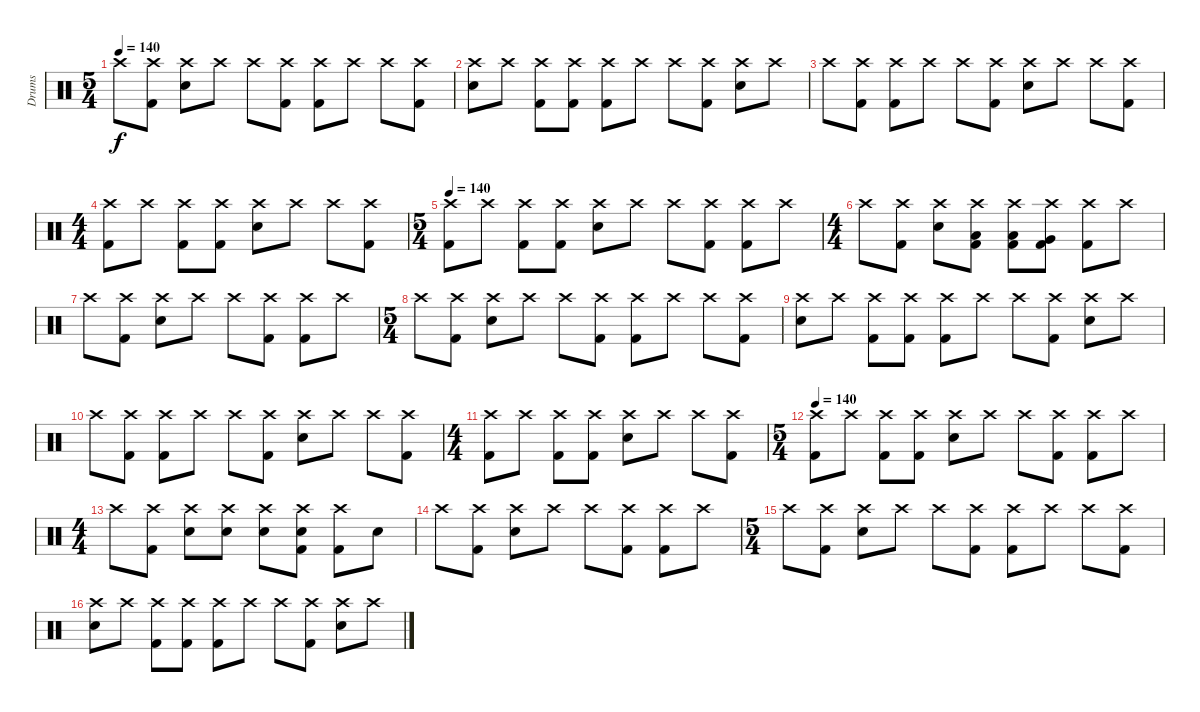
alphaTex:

\track ("Drums" "Drums") {instrument percussion}
\staff {score}
\articulation defaults
\ts (5 4)
\tempo 140
\clef neutral
\ks c "Crash high (hit)".8{dy f}
("Crash high (hit)"{x} "Kick (hit) 2").8 ("Crash high (hit)" "Electric Snare (hit)").8 "Crash high (hit)"{x}.8 "Crash high (hit)".8 ("Crash high (hit)"{x} "Kick (hit) 2").8 ("Crash high (hit)" "Kick (hit) 2").8 "Crash high (hit)"{x}.8 "Crash high (hit)".8 ("Crash high (hit)"{x} "Kick (hit) 2").8 |
("Crash high (hit)" "Electric Snare (hit)").8 "Crash high (hit)"{x}.8 ("Crash high (hit)" "Kick (hit) 2"{x}).8 ("Crash high (hit)"{x} "Kick (hit) 2").8 ("Crash high (hit)" "Kick (hit) 2").8 "Crash high (hit)"{x}.8 "Crash high (hit)".8 ("Crash high (hit)"{x} "Kick (hit) 2").8 ("Crash high (hit)" "Electric Snare (hit)").8 "Crash high (hit)"{x}.8 |
"Crash high (hit)".8 ("Crash high (hit)"{x} "Kick (hit) 2").8 ("Crash high (hit)" "Kick (hit) 2").8 "Crash high (hit)"{x}.8 "Crash high (hit)".8 ("Crash high (hit)"{x} "Kick (hit) 2").8 ("Crash high (hit)" "Electric Snare (hit)").8 "Crash high (hit)"{x}.8 "Crash high (hit)".8 ("Crash high (hit)"{x} "Kick (hit) 2").8 |
\ts (4 4)
("Crash high (hit)" "Kick (hit) 2").8 "Crash high (hit)"{x}.8 ("Crash high (hit)" "Kick (hit) 2"{x}).8 ("Crash high (hit)"{x} "Kick (hit) 2").8 ("Crash high (hit)" "Electric Snare (hit)").8 "Crash high (hit)"{x}.8 "Crash high (hit)".8 ("Crash high (hit)"{x} "Kick (hit) 2").8 |
\ts (5 4)
\tempo 140
("Crash high (hit)" "Kick (hit) 2").8 "Crash high (hit)"{x}.8 ("Crash high (hit)" "Kick (hit) 2"{x}).8 ("Crash high (hit)"{x} "Kick (hit) 2").8 ("Crash high (hit)" "Electric Snare (hit)").8 "Crash high (hit)"{x}.8 "Crash high (hit)".8 ("Crash high (hit)"{x} "Kick (hit) 2").8 ("Crash high (hit)" "Kick (hit) 2").8 "Crash high (hit)"{x}.8 |
\ts (4 4)
"Crash high (hit)".8 ("Crash high (hit)"{x} "Kick (hit) 2").8 ("Crash high (hit)" "Electric Snare (hit)").8 ("Crash high (hit)"{x} "Low Tom (hit)" "Kick (hit) 2").8 ("Crash high (hit)" "Low Tom (hit)" "Kick (hit) 2").8 ("Crash high (hit)"{x} "Very Low Tom (hit)" "Kick (hit) 2").8 ("Crash high (hit)" "Kick (hit) 2").8 "Crash high (hit)"{x}.8 |
"Crash high (hit)".8 ("Crash high (hit)"{x} "Kick (hit) 2").8 ("Crash high (hit)" "Electric Snare (hit)").8 "Crash high (hit)"{x}.8 "Crash high (hit)".8 ("Crash high (hit)"{x} "Kick (hit) 2").8 ("Crash high (hit)" "Kick (hit) 2").8 "Crash high (hit)"{x}.8 |
\ts (5 4)
"Crash high (hit)".8 ("Crash high (hit)"{x} "Kick (hit) 2").8 ("Crash high (hit)" "Electric Snare (hit)").8 "Crash high (hit)"{x}.8 "Crash high (hit)".8 ("Crash high (hit)"{x} "Kick (hit) 2").8 ("Crash high (hit)" "Kick (hit) 2").8 "Crash high (hit)"{x}.8 "Crash high (hit)".8 ("Crash high (hit)"{x} "Kick (hit) 2").8 |
("Crash high (hit)" "Electric Snare (hit)").8 "Crash high (hit)"{x}.8 ("Crash high (hit)" "Kick (hit) 2"{x}).8 ("Crash high (hit)"{x} "Kick (hit) 2").8 ("Crash high (hit)" "Kick (hit) 2").8 "Crash high (hit)"{x}.8 "Crash high (hit)".8 ("Crash high (hit)"{x} "Kick (hit) 2").8 ("Crash high (hit)" "Electric Snare (hit)").8 "Crash high (hit)"{x}.8 |
"Crash high (hit)".8 ("Crash high (hit)"{x} "Kick (hit) 2").8 ("Crash high (hit)" "Kick (hit) 2").8 "Crash high (hit)"{x}.8 "Crash high (hit)".8 ("Crash high (hit)"{x} "Kick (hit) 2").8 ("Crash high (hit)" "Electric Snare (hit)").8 "Crash high (hit)"{x}.8 "Crash high (hit)".8 ("Crash high (hit)"{x} "Kick (hit) 2").8 |
\ts (4 4)
("Crash high (hit)" "Kick (hit) 2").8 "Crash high (hit)"{x}.8 ("Crash high (hit)" "Kick (hit) 2"{x}).8 ("Crash high (hit)"{x} "Kick (hit) 2").8 ("Crash high (hit)" "Electric Snare (hit)").8 "Crash high (hit)"{x}.8 "Crash high (hit)".8 ("Crash high (hit)"{x} "Kick (hit) 2").8 |
\ts (5 4)
\tempo 140
("Crash high (hit)" "Kick (hit) 2").8 "Crash high (hit)"{x}.8 ("Crash high (hit)" "Kick (hit) 2"{x}).8 ("Crash high (hit)"{x} "Kick (hit) 2").8 ("Crash high (hit)" "Electric Snare (hit)").8 "Crash high (hit)"{x}.8 "Crash high (hit)".8 ("Crash high (hit)"{x} "Kick (hit) 2").8 ("Crash high (hit)" "Kick (hit) 2").8 "Crash high (hit)"{x}.8 |
\ts (4 4)
"Crash high (hit)".8 ("Crash high (hit)"{x} "Kick (hit) 2").8 ("Crash high (hit)" "Electric Snare (hit)").8 ("Crash high (hit)"{x} "Electric Snare (hit)").8 ("Crash high (hit)" "Electric Snare (hit)").8 ("Crash high (hit)"{x} "Electric Snare (hit)" "Kick (hit) 2").8 ("Crash high (hit)" "Kick (hit) 2").8 "Snare (hit)"{x}.8 |
"Crash high (hit)".8 ("Crash high (hit)"{x} "Kick (hit) 2").8 ("Crash high (hit)" "Electric Snare (hit)").8 "Crash high (hit)"{x}.8 "Crash high (hit)".8 ("Crash high (hit)"{x} "Kick (hit) 2").8 ("Crash high (hit)" "Kick (hit) 2").8 "Crash high (hit)"{x}.8 |
\ts (5 4)
"Crash high (hit)".8 ("Crash high (hit)"{x} "Kick (hit) 2").8 ("Crash high (hit)" "Electric Snare (hit)").8 "Crash high (hit)"{x}.8 "Crash high (hit)".8 ("Crash high (hit)"{x} "Kick (hit) 2").8 ("Crash high (hit)" "Kick (hit) 2").8 "Crash high (hit)"{x}.8 "Crash high (hit)".8 ("Crash high (hit)"{x} "Kick (hit) 2").8 |
("Crash high (hit)" "Electric Snare (hit)").8 "Crash high (hit)"{x}.8 ("Crash high (hit)" "Kick (hit) 2"{x}).8 ("Crash high (hit)"{x} "Kick (hit) 2").8 ("Crash high (hit)" "Kick (hit) 2").8 "Crash high (hit)"{x}.8 "Crash high (hit)".8 ("Crash high (hit)"{x} "Kick (hit) 2").8 ("Crash high (hit)" "Electric Snare (hit)").8 "Crash high (hit)"{x}.8
